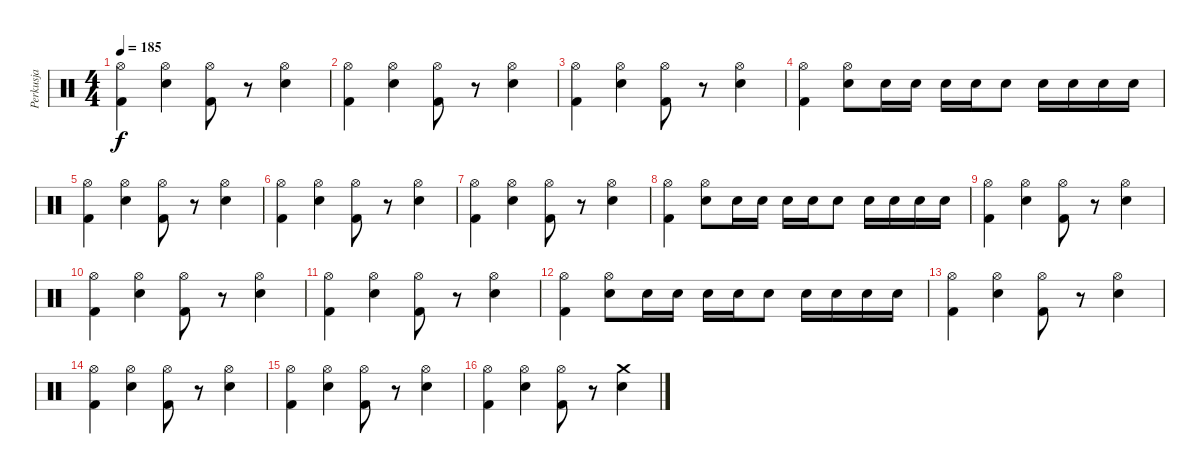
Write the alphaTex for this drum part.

\track ("Perkusja" "Perkusja") {instrument percussion}
\staff {score}
\articulation defaults
\ts (4 4)
\tempo 185
\clef neutral
\ks c
("Hi-Hat (open)" "Kick (hit) 2").4{dy f} ("Hi-Hat (open)" "Snare (hit) 2").4 ("Hi-Hat (open)" "Kick (hit) 2").8 r.8 ("Hi-Hat (open)" "Snare (hit) 2").4 |
("Hi-Hat (open)" "Kick (hit) 2").4 ("Hi-Hat (open)" "Snare (hit) 2").4 ("Hi-Hat (open)" "Kick (hit) 2").8 r.8 ("Hi-Hat (open)" "Snare (hit) 2").4 |
("Hi-Hat (open)" "Kick (hit) 2").4 ("Hi-Hat (open)" "Snare (hit) 2").4 ("Hi-Hat (open)" "Kick (hit) 2").8 r.8 ("Hi-Hat (open)" "Snare (hit) 2").4 |
("Hi-Hat (open)" "Kick (hit) 2").4 ("Hi-Hat (open)" "Snare (hit) 2").8 "Snare (hit) 2".16 "Snare (hit) 2".16 "Snare (hit) 2".16 "Snare (hit) 2".16 "Snare (hit) 2".8 "Snare (hit) 2".16 "Snare (hit) 2".16 "Snare (hit) 2".16 "Snare (hit) 2".16 |
("Hi-Hat (open)" "Kick (hit) 2").4 ("Hi-Hat (open)" "Snare (hit) 2").4 ("Hi-Hat (open)" "Kick (hit) 2").8 r.8 ("Hi-Hat (open)" "Snare (hit) 2").4 |
("Hi-Hat (open)" "Kick (hit) 2").4 ("Hi-Hat (open)" "Snare (hit) 2").4 ("Hi-Hat (open)" "Kick (hit) 2").8 r.8 ("Hi-Hat (open)" "Snare (hit) 2").4 |
("Hi-Hat (open)" "Kick (hit) 2").4 ("Hi-Hat (open)" "Snare (hit) 2").4 ("Hi-Hat (open)" "Kick (hit) 2").8 r.8 ("Hi-Hat (open)" "Snare (hit) 2").4 |
("Hi-Hat (open)" "Kick (hit) 2").4 ("Hi-Hat (open)" "Snare (hit) 2").8 "Snare (hit) 2".16 "Snare (hit) 2".16 "Snare (hit) 2".16 "Snare (hit) 2".16 "Snare (hit) 2".8 "Snare (hit) 2".16 "Snare (hit) 2".16 "Snare (hit) 2".16 "Snare (hit) 2".16 |
("Hi-Hat (open)" "Kick (hit) 2").4 ("Hi-Hat (open)" "Snare (hit) 2").4 ("Hi-Hat (open)" "Kick (hit) 2").8 r.8 ("Hi-Hat (open)" "Snare (hit) 2").4 |
("Hi-Hat (open)" "Kick (hit) 2").4 ("Hi-Hat (open)" "Snare (hit) 2").4 ("Hi-Hat (open)" "Kick (hit) 2").8 r.8 ("Hi-Hat (open)" "Snare (hit) 2").4 |
("Hi-Hat (open)" "Kick (hit) 2").4 ("Hi-Hat (open)" "Snare (hit) 2").4 ("Hi-Hat (open)" "Kick (hit) 2").8 r.8 ("Hi-Hat (open)" "Snare (hit) 2").4 |
("Hi-Hat (open)" "Kick (hit) 2").4 ("Hi-Hat (open)" "Snare (hit) 2").8 "Snare (hit) 2".16 "Snare (hit) 2".16 "Snare (hit) 2".16 "Snare (hit) 2".16 "Snare (hit) 2".8 "Snare (hit) 2".16 "Snare (hit) 2".16 "Snare (hit) 2".16 "Snare (hit) 2".16 |
("Hi-Hat (open)" "Kick (hit) 2").4 ("Hi-Hat (open)" "Snare (hit) 2").4 ("Hi-Hat (open)" "Kick (hit) 2").8 r.8 ("Hi-Hat (open)" "Snare (hit) 2").4 |
("Hi-Hat (open)" "Kick (hit) 2").4 ("Hi-Hat (open)" "Snare (hit) 2").4 ("Hi-Hat (open)" "Kick (hit) 2").8 r.8 ("Hi-Hat (open)" "Snare (hit) 2").4 |
("Hi-Hat (open)" "Kick (hit) 2").4 ("Hi-Hat (open)" "Snare (hit) 2").4 ("Hi-Hat (open)" "Kick (hit) 2").8 r.8 ("Hi-Hat (open)" "Snare (hit) 2").4 |
("Hi-Hat (open)" "Kick (hit) 2").4 ("Hi-Hat (open)" "Snare (hit) 2").4 ("Hi-Hat (open)" "Kick (hit) 2").8 r.8 ("Crash medium (hit)" "Snare (hit) 2").4
